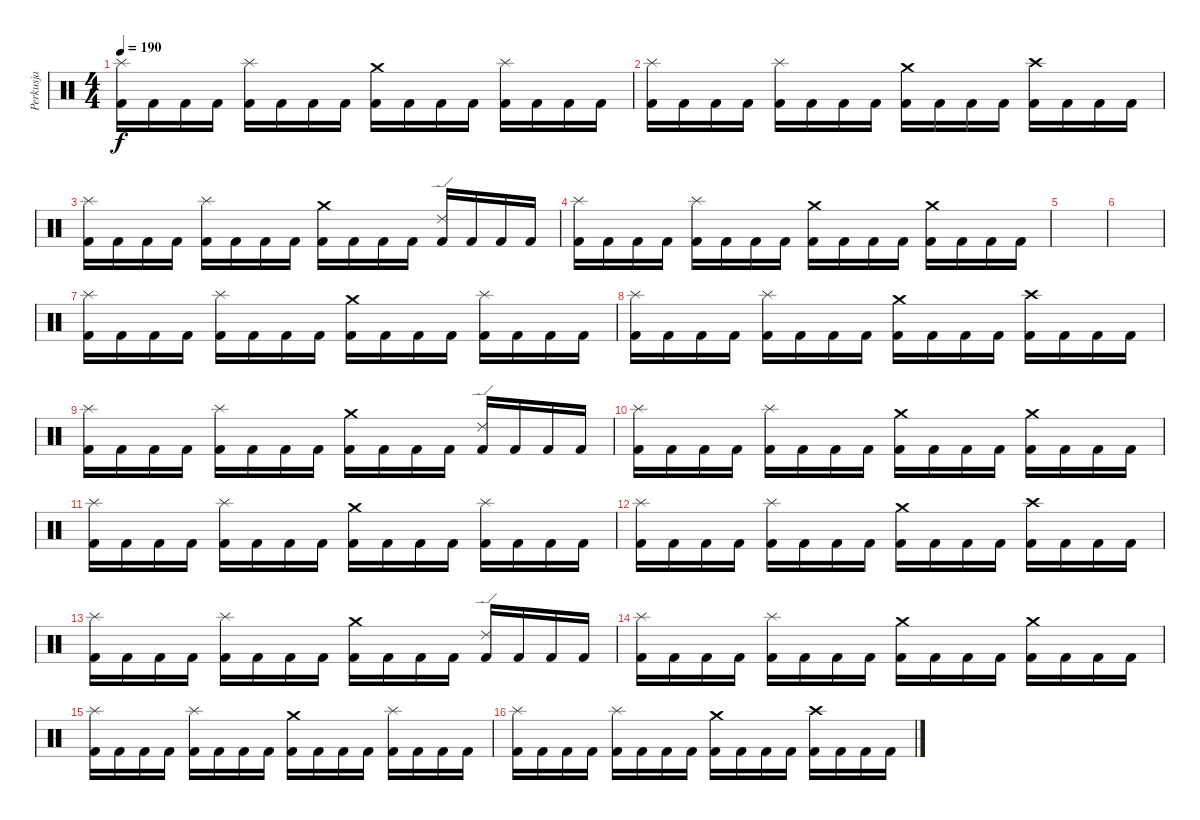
\track ("Perkusja" "Perkusja") {instrument percussion}
\staff {score}
\articulation defaults
\ts (4 4)
\tempo 190
\clef neutral
\ks c
("Splash (hit)" "Kick (hit) 2").16{dy f} "Kick (hit) 2".16 "Kick (hit) 2".16 "Kick (hit) 2".16 ("Splash (hit)" "Kick (hit) 2").16 "Kick (hit) 2".16 "Kick (hit) 2".16 "Kick (hit) 2".16 ("Crash medium (hit)" "Kick (hit) 2").16 "Kick (hit) 2".16 "Kick (hit) 2".16 "Kick (hit) 2".16 ("Splash (hit)" "Kick (hit) 2").16 "Kick (hit) 2".16 "Kick (hit) 2".16 "Kick (hit) 2".16 |
("Splash (hit)" "Kick (hit) 2").16 "Kick (hit) 2".16 "Kick (hit) 2".16 "Kick (hit) 2".16 ("Splash (hit)" "Kick (hit) 2").16 "Kick (hit) 2".16 "Kick (hit) 2".16 "Kick (hit) 2".16 ("Crash medium (hit)" "Kick (hit) 2").16 "Kick (hit) 2".16 "Kick (hit) 2".16 "Kick (hit) 2".16 ("Crash high (hit)" "Kick (hit) 2").16 "Kick (hit) 2".16 "Kick (hit) 2".16 "Kick (hit) 2".16 |
("Splash (hit)" "Kick (hit) 2").16 "Kick (hit) 2".16 "Kick (hit) 2".16 "Kick (hit) 2".16 ("Splash (hit)" "Kick (hit) 2").16 "Kick (hit) 2".16 "Kick (hit) 2".16 "Kick (hit) 2".16 ("Crash medium (hit)" "Kick (hit) 2").16 "Kick (hit) 2".16 "Kick (hit) 2".16 "Kick (hit) 2".16 ("Ride (edge) 2" "Kick (hit) 2").16 "Kick (hit) 2".16 "Kick (hit) 2".16 "Kick (hit) 2".16 |
("Splash (hit)" "Kick (hit) 2").16 "Kick (hit) 2".16 "Kick (hit) 2".16 "Kick (hit) 2".16 ("Splash (hit)" "Kick (hit) 2").16 "Kick (hit) 2".16 "Kick (hit) 2".16 "Kick (hit) 2".16 ("Crash medium (hit)" "Kick (hit) 2").16 "Kick (hit) 2".16 "Kick (hit) 2".16 "Kick (hit) 2".16 ("Crash medium (hit)" "Kick (hit) 2").16 "Kick (hit) 2".16 "Kick (hit) 2".16 "Kick (hit) 2".16 |
|
|
("Splash (hit)" "Kick (hit) 2").16{volume 12} "Kick (hit) 2".16 "Kick (hit) 2".16 "Kick (hit) 2".16 ("Splash (hit)" "Kick (hit) 2").16 "Kick (hit) 2".16 "Kick (hit) 2".16 "Kick (hit) 2".16 ("Crash medium (hit)" "Kick (hit) 2").16 "Kick (hit) 2".16 "Kick (hit) 2".16 "Kick (hit) 2".16 ("Splash (hit)" "Kick (hit) 2").16 "Kick (hit) 2".16 "Kick (hit) 2".16 "Kick (hit) 2".16 |
("Splash (hit)" "Kick (hit) 2").16 "Kick (hit) 2".16 "Kick (hit) 2".16 "Kick (hit) 2".16 ("Splash (hit)" "Kick (hit) 2").16 "Kick (hit) 2".16 "Kick (hit) 2".16 "Kick (hit) 2".16 ("Crash medium (hit)" "Kick (hit) 2").16 "Kick (hit) 2".16 "Kick (hit) 2".16 "Kick (hit) 2".16 ("Crash high (hit)" "Kick (hit) 2").16 "Kick (hit) 2".16 "Kick (hit) 2".16 "Kick (hit) 2".16 |
("Splash (hit)" "Kick (hit) 2").16 "Kick (hit) 2".16 "Kick (hit) 2".16 "Kick (hit) 2".16 ("Splash (hit)" "Kick (hit) 2").16 "Kick (hit) 2".16 "Kick (hit) 2".16 "Kick (hit) 2".16 ("Crash medium (hit)" "Kick (hit) 2").16 "Kick (hit) 2".16 "Kick (hit) 2".16 "Kick (hit) 2".16 ("Ride (edge) 2" "Kick (hit) 2").16 "Kick (hit) 2".16 "Kick (hit) 2".16 "Kick (hit) 2".16 |
("Splash (hit)" "Kick (hit) 2").16 "Kick (hit) 2".16 "Kick (hit) 2".16 "Kick (hit) 2".16 ("Splash (hit)" "Kick (hit) 2").16 "Kick (hit) 2".16 "Kick (hit) 2".16 "Kick (hit) 2".16 ("Crash medium (hit)" "Kick (hit) 2").16 "Kick (hit) 2".16 "Kick (hit) 2".16 "Kick (hit) 2".16 ("Crash medium (hit)" "Kick (hit) 2").16 "Kick (hit) 2".16 "Kick (hit) 2".16 "Kick (hit) 2".16 |
("Splash (hit)" "Kick (hit) 2").16{volume 12} "Kick (hit) 2".16 "Kick (hit) 2".16 "Kick (hit) 2".16 ("Splash (hit)" "Kick (hit) 2").16 "Kick (hit) 2".16 "Kick (hit) 2".16 "Kick (hit) 2".16 ("Crash medium (hit)" "Kick (hit) 2").16 "Kick (hit) 2".16 "Kick (hit) 2".16 "Kick (hit) 2".16 ("Splash (hit)" "Kick (hit) 2").16 "Kick (hit) 2".16 "Kick (hit) 2".16 "Kick (hit) 2".16 |
("Splash (hit)" "Kick (hit) 2").16 "Kick (hit) 2".16 "Kick (hit) 2".16 "Kick (hit) 2".16 ("Splash (hit)" "Kick (hit) 2").16 "Kick (hit) 2".16 "Kick (hit) 2".16 "Kick (hit) 2".16 ("Crash medium (hit)" "Kick (hit) 2").16 "Kick (hit) 2".16 "Kick (hit) 2".16 "Kick (hit) 2".16 ("Crash high (hit)" "Kick (hit) 2").16 "Kick (hit) 2".16 "Kick (hit) 2".16 "Kick (hit) 2".16 |
("Splash (hit)" "Kick (hit) 2").16 "Kick (hit) 2".16 "Kick (hit) 2".16 "Kick (hit) 2".16 ("Splash (hit)" "Kick (hit) 2").16 "Kick (hit) 2".16 "Kick (hit) 2".16 "Kick (hit) 2".16 ("Crash medium (hit)" "Kick (hit) 2").16 "Kick (hit) 2".16 "Kick (hit) 2".16 "Kick (hit) 2".16 ("Ride (edge) 2" "Kick (hit) 2").16 "Kick (hit) 2".16 "Kick (hit) 2".16 "Kick (hit) 2".16 |
("Splash (hit)" "Kick (hit) 2").16 "Kick (hit) 2".16 "Kick (hit) 2".16 "Kick (hit) 2".16 ("Splash (hit)" "Kick (hit) 2").16 "Kick (hit) 2".16 "Kick (hit) 2".16 "Kick (hit) 2".16 ("Crash medium (hit)" "Kick (hit) 2").16 "Kick (hit) 2".16 "Kick (hit) 2".16 "Kick (hit) 2".16 ("Crash medium (hit)" "Kick (hit) 2").16 "Kick (hit) 2".16 "Kick (hit) 2".16 "Kick (hit) 2".16 |
("Splash (hit)" "Kick (hit) 2").16{volume 12} "Kick (hit) 2".16 "Kick (hit) 2".16 "Kick (hit) 2".16 ("Splash (hit)" "Kick (hit) 2").16 "Kick (hit) 2".16 "Kick (hit) 2".16 "Kick (hit) 2".16 ("Crash medium (hit)" "Kick (hit) 2").16 "Kick (hit) 2".16 "Kick (hit) 2".16 "Kick (hit) 2".16 ("Splash (hit)" "Kick (hit) 2").16 "Kick (hit) 2".16 "Kick (hit) 2".16 "Kick (hit) 2".16 |
("Splash (hit)" "Kick (hit) 2").16 "Kick (hit) 2".16 "Kick (hit) 2".16 "Kick (hit) 2".16 ("Splash (hit)" "Kick (hit) 2").16 "Kick (hit) 2".16 "Kick (hit) 2".16 "Kick (hit) 2".16 ("Crash medium (hit)" "Kick (hit) 2").16 "Kick (hit) 2".16 "Kick (hit) 2".16 "Kick (hit) 2".16 ("Crash high (hit)" "Kick (hit) 2").16 "Kick (hit) 2".16 "Kick (hit) 2".16 "Kick (hit) 2".16
